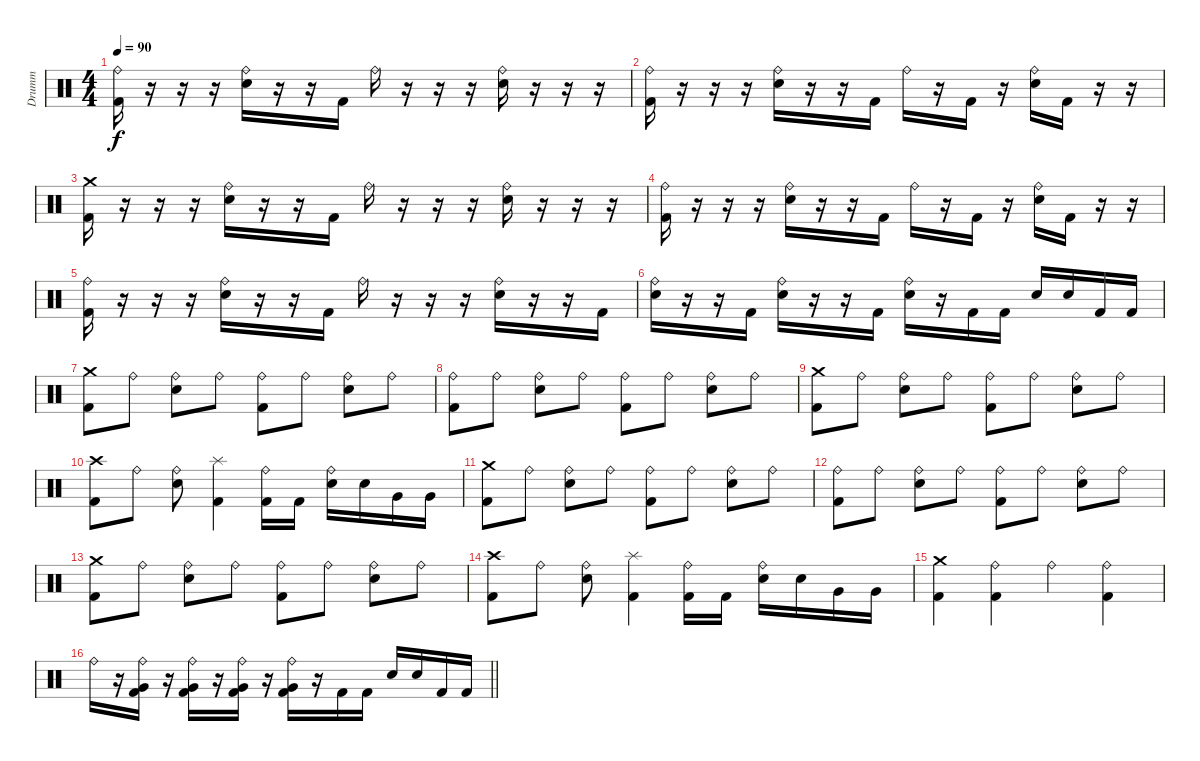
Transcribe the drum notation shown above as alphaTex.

\track ("Drumm" "Drumm") {instrument percussion}
\staff {score}
\articulation defaults
\ts (4 4)
\tempo 90
\clef neutral
\ks c
("Ride (bell)" "Kick (hit) 2").16{dy f} r.16 r.16 r.16 ("Ride (bell)" "Snare (hit) 2").16 r.16 r.16 "Kick (hit) 2".16 "Ride (bell)".16 r.16 r.16 r.16 ("Ride (bell)" "Snare (hit) 2").16 r.16 r.16 r.16 |
("Ride (bell)" "Kick (hit) 2").16 r.16 r.16 r.16 ("Ride (bell)" "Snare (hit) 2").16 r.16 r.16 "Kick (hit) 2".16 "Ride (bell)".16 r.16 "Kick (hit) 2".16 r.16 ("Ride (bell)" "Snare (hit) 2").16 "Kick (hit) 2".16 r.16 r.16 |
("Crash medium (hit)" "Kick (hit) 2").16 r.16 r.16 r.16 ("Ride (bell)" "Snare (hit) 2").16 r.16 r.16 "Kick (hit) 2".16 "Ride (bell)".16 r.16 r.16 r.16 ("Ride (bell)" "Snare (hit) 2").16 r.16 r.16 r.16 |
("Ride (bell)" "Kick (hit) 2").16 r.16 r.16 r.16 ("Ride (bell)" "Snare (hit) 2").16 r.16 r.16 "Kick (hit) 2".16 "Ride (bell)".16 r.16 "Kick (hit) 2".16 r.16 ("Ride (bell)" "Snare (hit) 2").16 "Kick (hit) 2".16 r.16 r.16 |
("Ride (bell)" "Kick (hit) 2").16 r.16 r.16 r.16 ("Ride (bell)" "Snare (hit) 2").16 r.16 r.16 "Kick (hit) 2".16 "Ride (bell)".16 r.16 r.16 r.16 ("Ride (bell)" "Snare (hit) 2").16 r.16 r.16 "Kick (hit) 2".16 |
("Ride (bell)" "Snare (hit) 2").16 r.16 r.16 "Kick (hit) 2".16 ("Ride (bell)" "Snare (hit) 2").16 r.16 r.16 "Kick (hit) 2".16 ("Ride (bell)" "Snare (hit) 2").16 r.16 "Kick (hit) 2".16 "Kick (hit) 2".16 "Snare (hit) 2".16 "Snare (hit) 2".16 "Kick (hit) 2".16 "Kick (hit) 2".16 |
("Crash medium (hit)" "Kick (hit) 2").8 "Ride (bell)".8 ("Ride (bell)" "Snare (hit) 2").8 "Ride (bell)".8 ("Ride (bell)" "Kick (hit) 2").8 "Ride (bell)".8 ("Ride (bell)" "Snare (hit) 2").8 "Ride (bell)".8 |
("Ride (bell)" "Kick (hit) 2").8 "Ride (bell)".8 ("Ride (bell)" "Snare (hit) 2").8 "Ride (bell)".8 ("Ride (bell)" "Kick (hit) 2").8 "Ride (bell)".8 ("Ride (bell)" "Snare (hit) 2").8 "Ride (bell)".8 |
("Crash medium (hit)" "Kick (hit) 2").8 "Ride (bell)".8 ("Ride (bell)" "Snare (hit) 2").8 "Ride (bell)".8 ("Ride (bell)" "Kick (hit) 2").8 "Ride (bell)".8 ("Ride (bell)" "Snare (hit) 2").8 "Ride (bell)".8 |
("Crash high (hit)" "Kick (hit) 2").8 "Ride (bell)".8 ("Ride (bell)" "Snare (hit) 2").8 ("Splash (hit)" "Kick (hit) 2").4 ("Ride (bell)" "Kick (hit) 2").16 "Kick (hit) 2".16 ("Ride (bell)" "Snare (hit) 2").16 "Snare (hit) 2".16 "Very Low Tom (hit)".16 "Very Low Tom (hit)".16 |
("Crash medium (hit)" "Kick (hit) 2").8 "Ride (bell)".8 ("Ride (bell)" "Snare (hit) 2").8 "Ride (bell)".8 ("Ride (bell)" "Kick (hit) 2").8 "Ride (bell)".8 ("Ride (bell)" "Snare (hit) 2").8 "Ride (bell)".8 |
("Ride (bell)" "Kick (hit) 2").8 "Ride (bell)".8 ("Ride (bell)" "Snare (hit) 2").8 "Ride (bell)".8 ("Ride (bell)" "Kick (hit) 2").8 "Ride (bell)".8 ("Ride (bell)" "Snare (hit) 2").8 "Ride (bell)".8 |
("Crash medium (hit)" "Kick (hit) 2").8 "Ride (bell)".8 ("Ride (bell)" "Snare (hit) 2").8 "Ride (bell)".8 ("Ride (bell)" "Kick (hit) 2").8 "Ride (bell)".8 ("Ride (bell)" "Snare (hit) 2").8 "Ride (bell)".8 |
("Crash high (hit)" "Kick (hit) 2").8 "Ride (bell)".8 ("Ride (bell)" "Snare (hit) 2").8 ("Splash (hit)" "Kick (hit) 2").4 ("Ride (bell)" "Kick (hit) 2").16 "Kick (hit) 2".16 ("Ride (bell)" "Snare (hit) 2").16 "Snare (hit) 2".16 "Very Low Tom (hit)".16 "Very Low Tom (hit)".16 |
("Crash medium (hit)" "Kick (hit) 2").4 ("Ride (bell)" "Kick (hit) 2").4 "Ride (bell)".4 ("Ride (bell)" "Kick (hit) 2").4 |
\barLineRight lightlight "Ride (bell)".16
r.16 ("Ride (bell)" "Kick (hit) 2" "Very Low Tom (hit)").16 r.16 ("Ride (bell)" "Kick (hit) 2" "Very Low Tom (hit)").16 r.16 ("Ride (bell)" "Kick (hit) 2" "Very Low Tom (hit)").16 r.16 ("Ride (bell)" "Kick (hit) 2" "Very Low Tom (hit)").16 r.16 "Kick (hit) 2".16 "Kick (hit) 2".16 "Snare (hit) 2".16 "Snare (hit) 2".16 "Kick (hit) 2".16 "Kick (hit) 2".16
